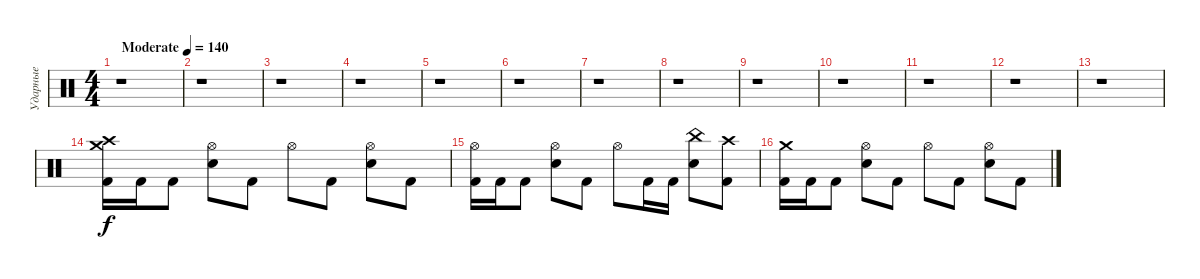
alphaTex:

\track ("Ударные" "Ударные") {instrument percussion}
\staff {score}
\articulation defaults
\ts (4 4)
\tempo (140 "Moderate")
\clef neutral
\ks c
r.1{dy f} |
r.1 |
r.1 |
r.1 |
r.1 |
r.1 |
r.1 |
r.1 |
r.1 |
r.1 |
r.1 |
r.1 |
r.1 |
("Crash medium (hit)" "Crash high (hit)" "Kick (hit) 2").16 "Kick (hit) 2".16 "Kick (hit) 2".8 ("Hi-Hat (open)" "Electric Snare (hit)").8 "Kick (hit) 2".8 "Hi-Hat (open)".8 "Kick (hit) 2".8 ("Hi-Hat (open)" "Electric Snare (hit)").8 "Kick (hit) 2".8 |
("Hi-Hat (open)" "Kick (hit) 2").16 "Kick (hit) 2".16 "Kick (hit) 2".8 ("Hi-Hat (open)" "Electric Snare (hit)").8 "Kick (hit) 2".8 "Hi-Hat (open)".8 "Kick (hit) 2".16 "Kick (hit) 2".16 ("China (hit)" "Electric Snare (hit)").8 ("Crash high (hit)" "Kick (hit) 2").8 |
("Crash medium (hit)" "Kick (hit) 2").16 "Kick (hit) 2".16 "Kick (hit) 2".8 ("Hi-Hat (open)" "Electric Snare (hit)").8 "Kick (hit) 2".8 "Hi-Hat (open)".8 "Kick (hit) 2".8 ("Hi-Hat (open)" "Electric Snare (hit)").8 "Kick (hit) 2".8
